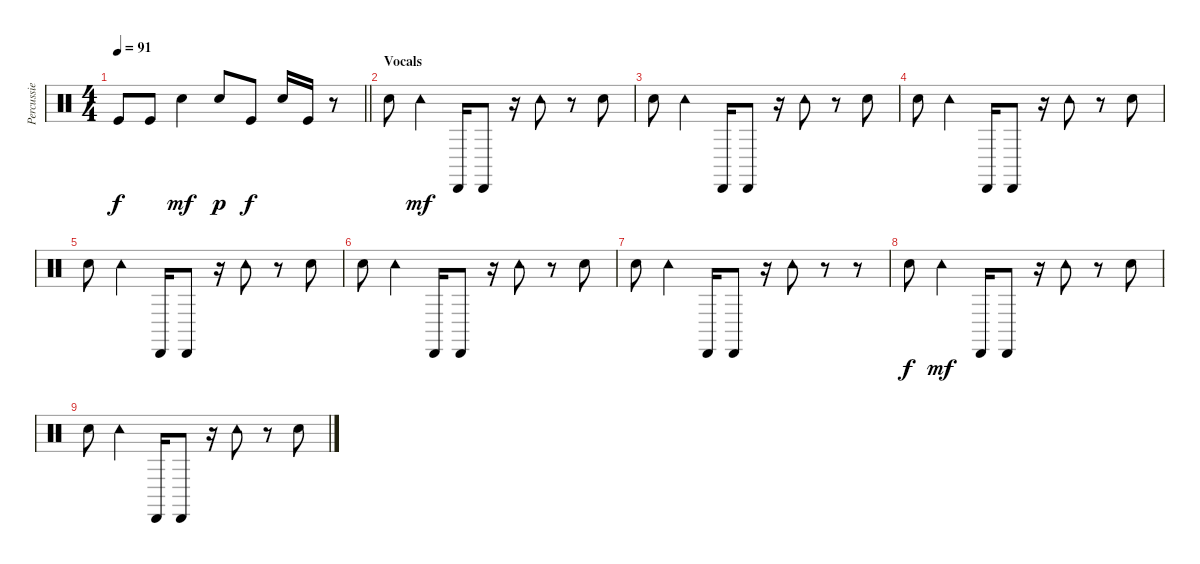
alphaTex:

\track ("Percussie" "Percussie") {instrument percussion}
\staff {score}
\articulation defaults
\ts (4 4)
\tempo 91
\clef neutral
\barLineRight lightlight
\ks c "Kick (hit)".8{dy f} "Kick (hit)".8 "Electric Snare (hit)".4{dy mf} "Electric Snare (hit)".8{dy p} "Kick (hit)".8{dy f} "Electric Snare (hit)".16 "Kick (hit)".16
r.8 |
\section ("" "Vocals")
"Hand Clap (hit)".8 "Tambourine (hit)".4{dy mf} "Cabasa (hit)".16 "Cabasa (hit)".8 r.16 "Tambourine (hit)".8 r.8 "Hand Clap (hit)".8 |
"Hand Clap (hit)".8 "Tambourine (hit)".4 "Cabasa (hit)".16 "Cabasa (hit)".8 r.16 "Tambourine (hit)".8 r.8 "Hand Clap (hit)".8 |
"Hand Clap (hit)".8 "Tambourine (hit)".4 "Cabasa (hit)".16 "Cabasa (hit)".8 r.16 "Tambourine (hit)".8 r.8 "Hand Clap (hit)".8 |
"Hand Clap (hit)".8 "Tambourine (hit)".4 "Cabasa (hit)".16 "Cabasa (hit)".8 r.16 "Tambourine (hit)".8 r.8 "Hand Clap (hit)".8 |
"Hand Clap (hit)".8 "Tambourine (hit)".4 "Cabasa (hit)".16 "Cabasa (hit)".8 r.16 "Tambourine (hit)".8 r.8 "Hand Clap (hit)".8 |
"Hand Clap (hit)".8 "Tambourine (hit)".4 "Cabasa (hit)".16 "Cabasa (hit)".8 r.16 "Tambourine (hit)".8 r.8 r.8 |
"Hand Clap (hit)".8{dy f} "Tambourine (hit)".4{dy mf} "Cabasa (hit)".16 "Cabasa (hit)".8 r.16 "Tambourine (hit)".8 r.8 "Hand Clap (hit)".8 |
"Hand Clap (hit)".8 "Tambourine (hit)".4 "Cabasa (hit)".16 "Cabasa (hit)".8 r.16 "Tambourine (hit)".8 r.8 "Hand Clap (hit)".8
